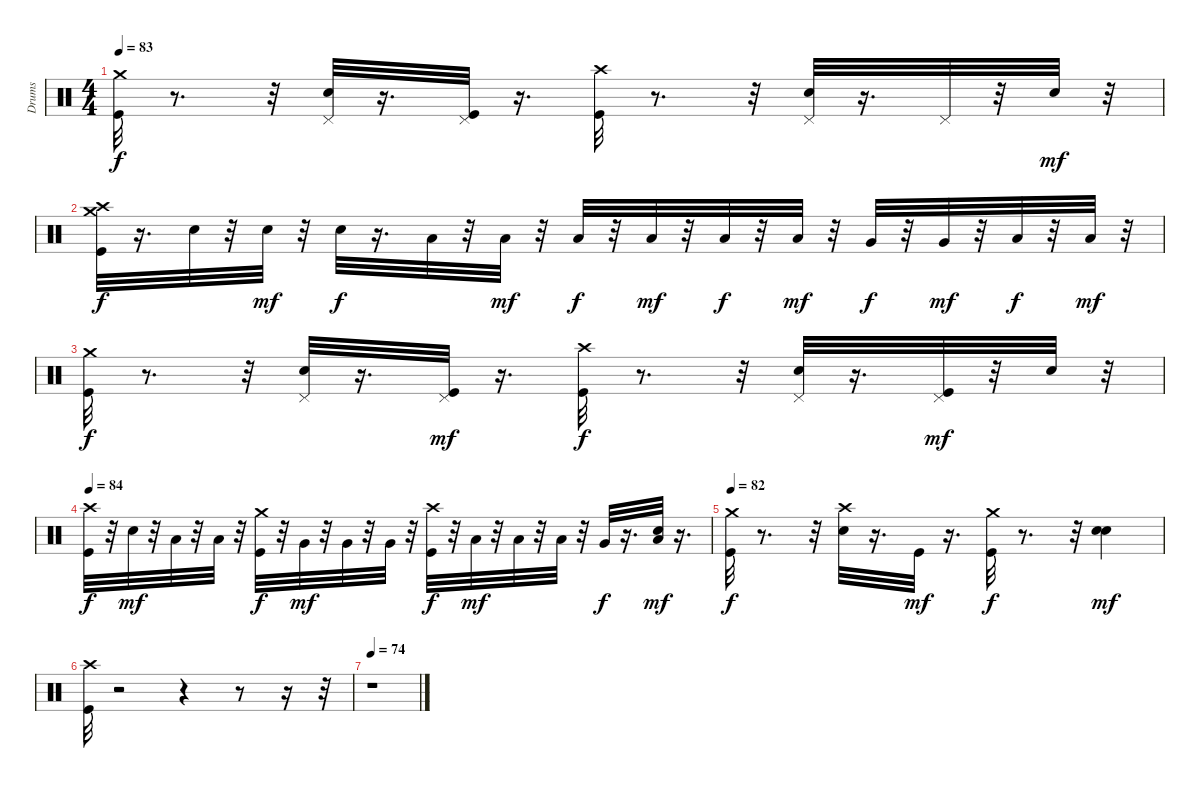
\track ("Drums" "Drums") {instrument percussion}
\staff {score}
\articulation defaults
\ts (4 4)
\tempo 83
\clef neutral
\ks c
("Crash medium (hit)" "Kick (hit)").32{dy f} r.8{d} r.32 ("Pedal Hi-Hat (hit)" "Snare (hit) 2").32 r.16{d} ("Pedal Hi-Hat (hit)" "Kick (hit)").32 r.16{d} ("Crash high (hit)" "Kick (hit)").32 r.8{d} r.32 ("Pedal Hi-Hat (hit)" "Snare (hit) 2").32 r.16{d} "Pedal Hi-Hat (hit)".32 r.32 "Snare (hit) 2".32{dy mf} r.32 |
("Kick (hit)" "Crash high (hit)" "Crash medium (hit)").32{dy f} r.16{d} "Snare (hit) 2".32 r.32 "Snare (hit) 2".32{dy mf} r.32 "Snare (hit) 2".32{dy f} r.16{d} "Low Tom (hit)".32 r.32 "Low Tom (hit)".32{dy mf} r.32 "Low Tom (hit)".32{dy f} r.32 "Low Tom (hit)".32{dy mf} r.32 "Low Tom (hit)".32{dy f} r.32 "Low Tom (hit)".32{dy mf} r.32 "Very Low Tom (hit)".32{dy f} r.32 "Very Low Tom (hit)".32{dy mf} r.32 "Low Floor Tom (hit)".32{dy f} r.32 "Low Floor Tom (hit)".32{dy mf} r.32 |
("Crash medium (hit)" "Kick (hit)").32{dy f} r.8{d} r.32 ("Pedal Hi-Hat (hit)" "Snare (hit) 2").32 r.16{d} ("Pedal Hi-Hat (hit)" "Kick (hit)").32{dy mf} r.16{d} ("Crash high (hit)" "Kick (hit)").32{dy f} r.8{d} r.32 ("Pedal Hi-Hat (hit)" "Snare (hit) 2").32 r.16{d} ("Kick (hit)" "Pedal Hi-Hat (hit)").32{dy mf} r.32 "Snare (hit) 2".32 r.32 |
\tempo 84
("Crash high (hit)" "Kick (hit)").32{dy f} r.32 "Snare (hit) 2".32{dy mf} r.32 "Low Tom (hit)".32 r.32 "Low Tom (hit)".32 r.32 ("Crash medium (hit)" "Kick (hit)").32{dy f} r.32 "Very Low Tom (hit)".32{dy mf} r.32 "Very Low Tom (hit)".32 r.32 "Very Low Tom (hit)".32 r.32 ("Crash high (hit)" "Kick (hit)").32{dy f} r.32 "Low Tom (hit)".32{dy mf} r.32 "Low Tom (hit)".32 r.32 "Low Tom (hit)".32 r.32 "Very Low Tom (hit)".32{dy f} r.16{d} ("Electric Snare (hit)" "Low Tom (hit)").32{dy mf} r.16{d} |
\tempo 82
("Kick (hit)" "Crash medium (hit)").32{dy f} r.8{d} r.32 ("Snare (hit) 2" "Crash high (hit)").32 r.16{d} "Kick (hit)".32{dy mf} r.16{d} ("Kick (hit)" "Crash medium (hit)").32{dy f} r.8{d} r.32 ("Snare (hit) 2" "Snare (hit) 2").4{dy mf} |
("Kick (hit)" "Crash high (hit)").32 r.2 r.4 r.8 r.16 r.32 |
\tempo 74
r.1
